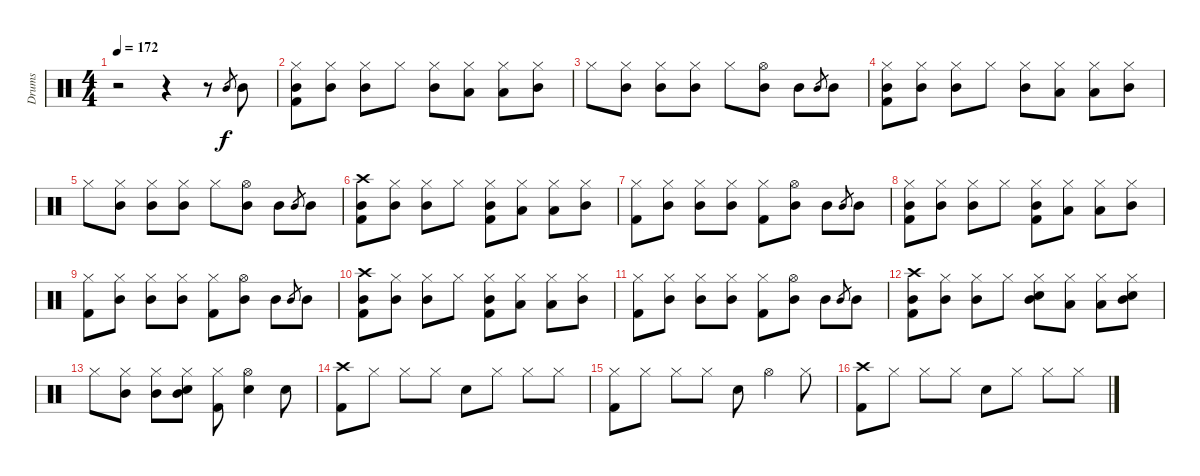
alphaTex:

\track ("Drums" "Drums") {instrument percussion}
\staff {score}
\articulation defaults
\ts (4 4)
\tempo 172
\clef neutral
\ks c
r.2{dy f} r.4 r.8 "Mid Tom (hit)".8{gr} "Mid Tom (hit)".8 |
("Hi-Hat (closed)" "Mid Tom (hit)" "Kick (hit) 2").8 ("Hi-Hat (closed)" "Mid Tom (hit)").8 ("Hi-Hat (closed)" "Mid Tom (hit)").8 "Hi-Hat (closed)".8 ("Hi-Hat (closed)" "Mid Tom (hit)").8 ("Hi-Hat (closed)" "Low Tom (hit)").8 ("Hi-Hat (closed)" "Low Tom (hit)").8 ("Hi-Hat (closed)" "Mid Tom (hit)").8 |
"Hi-Hat (closed)".8 ("Hi-Hat (closed)" "Mid Tom (hit)").8 ("Hi-Hat (closed)" "Mid Tom (hit)").8 ("Hi-Hat (closed)" "Mid Tom (hit)").8 "Hi-Hat (closed)".8 ("Hi-Hat (open)" "Mid Tom (hit)").8 "Mid Tom (hit)".8 "Mid Tom (hit)".8{gr} "Mid Tom (hit)".8 |
("Hi-Hat (closed)" "Mid Tom (hit)" "Kick (hit) 2").8 ("Hi-Hat (closed)" "Mid Tom (hit)").8 ("Hi-Hat (closed)" "Mid Tom (hit)").8 "Hi-Hat (closed)".8 ("Hi-Hat (closed)" "Mid Tom (hit)").8 ("Hi-Hat (closed)" "Low Tom (hit)").8 ("Hi-Hat (closed)" "Low Tom (hit)").8 ("Hi-Hat (closed)" "Mid Tom (hit)").8 |
"Hi-Hat (closed)".8 ("Hi-Hat (closed)" "Mid Tom (hit)").8 ("Hi-Hat (closed)" "Mid Tom (hit)").8 ("Hi-Hat (closed)" "Mid Tom (hit)").8 "Hi-Hat (closed)".8 ("Hi-Hat (open)" "Mid Tom (hit)").8 "Mid Tom (hit)".8 "Mid Tom (hit)".8{gr} "Mid Tom (hit)".8 |
("Crash high (hit)" "Mid Tom (hit)" "Kick (hit) 2").8 ("Hi-Hat (closed)" "Mid Tom (hit)").8 ("Hi-Hat (closed)" "Mid Tom (hit)").8 "Hi-Hat (closed)".8 ("Hi-Hat (closed)" "Mid Tom (hit)" "Kick (hit) 2").8 ("Hi-Hat (closed)" "Low Tom (hit)").8 ("Hi-Hat (closed)" "Low Tom (hit)").8 ("Hi-Hat (closed)" "Mid Tom (hit)").8 |
("Hi-Hat (closed)" "Kick (hit) 2").8 ("Hi-Hat (closed)" "Mid Tom (hit)").8 ("Hi-Hat (closed)" "Mid Tom (hit)").8 ("Hi-Hat (closed)" "Mid Tom (hit)").8 ("Hi-Hat (closed)" "Kick (hit) 2").8 ("Hi-Hat (open)" "Mid Tom (hit)").8 "Mid Tom (hit)".8 "Mid Tom (hit)".8{gr} "Mid Tom (hit)".8 |
("Hi-Hat (closed)" "Mid Tom (hit)" "Kick (hit) 2").8 ("Hi-Hat (closed)" "Mid Tom (hit)").8 ("Hi-Hat (closed)" "Mid Tom (hit)").8 "Hi-Hat (closed)".8 ("Hi-Hat (closed)" "Mid Tom (hit)" "Kick (hit) 2").8 ("Hi-Hat (closed)" "Low Tom (hit)").8 ("Hi-Hat (closed)" "Low Tom (hit)").8 ("Hi-Hat (closed)" "Mid Tom (hit)").8 |
("Hi-Hat (closed)" "Kick (hit) 2").8 ("Hi-Hat (closed)" "Mid Tom (hit)").8 ("Hi-Hat (closed)" "Mid Tom (hit)").8 ("Hi-Hat (closed)" "Mid Tom (hit)").8 ("Hi-Hat (closed)" "Kick (hit) 2").8 ("Hi-Hat (open)" "Mid Tom (hit)").8 "Mid Tom (hit)".8 "Mid Tom (hit)".8{gr} "Mid Tom (hit)".8 |
("Crash high (hit)" "Mid Tom (hit)" "Kick (hit) 2").8 ("Hi-Hat (closed)" "Mid Tom (hit)").8 ("Hi-Hat (closed)" "Mid Tom (hit)").8 "Hi-Hat (closed)".8 ("Hi-Hat (closed)" "Mid Tom (hit)" "Kick (hit) 2").8 ("Hi-Hat (closed)" "Low Tom (hit)").8 ("Hi-Hat (closed)" "Low Tom (hit)").8 ("Hi-Hat (closed)" "Mid Tom (hit)").8 |
("Hi-Hat (closed)" "Kick (hit) 2").8 ("Hi-Hat (closed)" "Mid Tom (hit)").8 ("Hi-Hat (closed)" "Mid Tom (hit)").8 ("Hi-Hat (closed)" "Mid Tom (hit)").8 ("Hi-Hat (closed)" "Kick (hit) 2").8 ("Hi-Hat (open)" "Mid Tom (hit)").8 "Mid Tom (hit)".8 "Mid Tom (hit)".8{gr} "Mid Tom (hit)".8 |
("Crash high (hit)" "Mid Tom (hit)" "Kick (hit) 2").8 ("Hi-Hat (closed)" "Mid Tom (hit)").8 ("Hi-Hat (closed)" "Mid Tom (hit)").8 "Hi-Hat (closed)".8 ("Hi-Hat (closed)" "Mid Tom (hit)" "Electric Snare (hit)").8 ("Hi-Hat (closed)" "Low Tom (hit)").8 ("Hi-Hat (closed)" "Low Tom (hit)").8 ("Hi-Hat (closed)" "Mid Tom (hit)" "Electric Snare (hit)").8 |
"Hi-Hat (closed)".8 ("Hi-Hat (closed)" "Mid Tom (hit)").8 ("Hi-Hat (closed)" "Mid Tom (hit)").8 ("Hi-Hat (closed)" "Mid Tom (hit)" "Electric Snare (hit)").8 ("Hi-Hat (closed)" "Kick (hit) 2").8 ("Hi-Hat (open)" "Electric Snare (hit)").4 "Electric Snare (hit)".8 |
("Crash high (hit)" "Kick (hit) 2").8 "Hi-Hat (closed)".8 "Hi-Hat (closed)".8 "Hi-Hat (closed)".8 "Electric Snare (hit)".8 "Hi-Hat (closed)".8 "Hi-Hat (closed)".8 "Hi-Hat (closed)".8 |
("Hi-Hat (closed)" "Kick (hit) 2").8 "Hi-Hat (closed)".8 "Hi-Hat (closed)".8 "Hi-Hat (closed)".8 "Electric Snare (hit)".8 "Hi-Hat (open)".4 "Hi-Hat (closed)".8 |
("Crash high (hit)" "Kick (hit) 2").8 "Hi-Hat (closed)".8 "Hi-Hat (closed)".8 "Hi-Hat (closed)".8 "Electric Snare (hit)".8 "Hi-Hat (closed)".8 "Hi-Hat (closed)".8 "Hi-Hat (closed)".8
